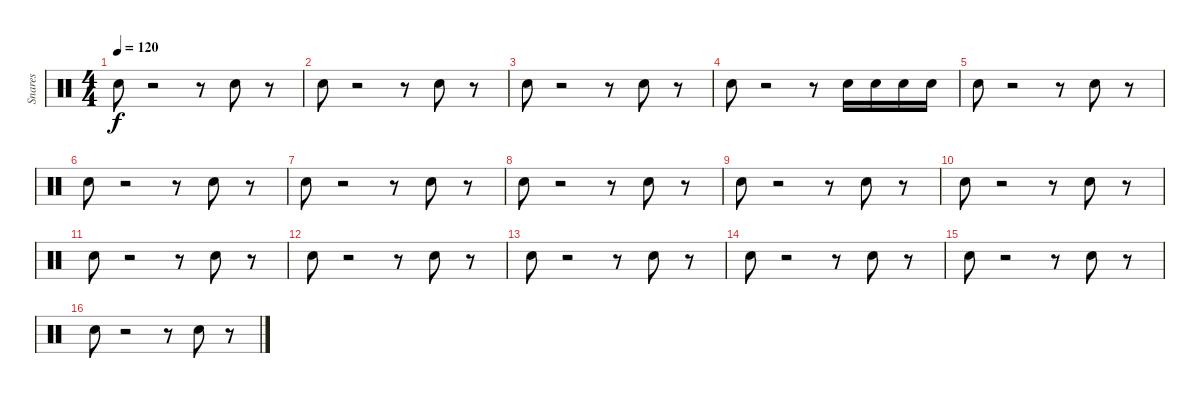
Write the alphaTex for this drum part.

\track ("Snares              " "Snares    ") {instrument percussion}
\staff {score}
\articulation defaults
\ts (4 4)
\tempo 120
\clef neutral
\ks c "Snare (hit) 2".8{dy f}
r.2 r.8 "Snare (hit) 2".8 r.8 |
"Snare (hit) 2".8 r.2 r.8 "Snare (hit) 2".8 r.8 |
"Snare (hit) 2".8 r.2 r.8 "Snare (hit) 2".8 r.8 |
"Snare (hit) 2".8 r.2 r.8 "Snare (hit) 2".16 "Snare (hit) 2".16 "Snare (hit) 2".16 "Snare (hit) 2".16 |
"Snare (hit) 2".8 r.2 r.8 "Snare (hit) 2".8 r.8 |
"Snare (hit) 2".8 r.2 r.8 "Snare (hit) 2".8 r.8 |
"Snare (hit) 2".8 r.2 r.8 "Snare (hit) 2".8 r.8 |
"Snare (hit) 2".8 r.2 r.8 "Snare (hit) 2".8 r.8 |
"Snare (hit) 2".8 r.2 r.8 "Snare (hit) 2".8 r.8 |
"Snare (hit) 2".8 r.2 r.8 "Snare (hit) 2".8 r.8 |
"Snare (hit) 2".8 r.2 r.8 "Snare (hit) 2".8 r.8 |
"Snare (hit) 2".8 r.2 r.8 "Snare (hit) 2".8 r.8 |
"Snare (hit) 2".8 r.2 r.8 "Snare (hit) 2".8 r.8 |
"Snare (hit) 2".8 r.2 r.8 "Snare (hit) 2".8 r.8 |
"Snare (hit) 2".8 r.2 r.8 "Snare (hit) 2".8 r.8 |
"Snare (hit) 2".8 r.2 r.8 "Snare (hit) 2".8 r.8
